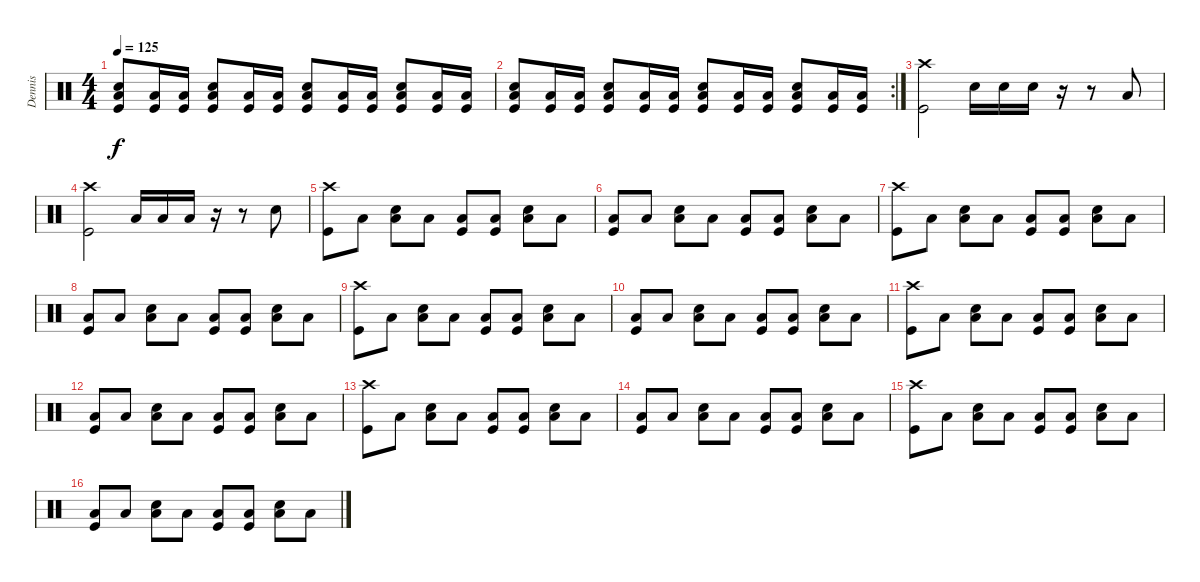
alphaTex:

\track ("Dennis" "Dennis") {instrument percussion}
\staff {score}
\articulation defaults
\ts (4 4)
\tempo 125
\clef neutral
\ks c
("Kick (hit)" "Low Floor Tom (hit)" "Electric Snare (hit)").8{dy f} ("Kick (hit)" "Low Floor Tom (hit)").16 ("Kick (hit)" "Low Floor Tom (hit)").16 ("Kick (hit)" "Low Floor Tom (hit)" "Electric Snare (hit)").8 ("Kick (hit)" "Low Floor Tom (hit)").16 ("Kick (hit)" "Low Floor Tom (hit)").16 ("Kick (hit)" "Low Floor Tom (hit)" "Electric Snare (hit)").8 ("Kick (hit)" "Low Floor Tom (hit)").16 ("Kick (hit)" "Low Floor Tom (hit)").16 ("Kick (hit)" "Low Floor Tom (hit)" "Electric Snare (hit)").8 ("Kick (hit)" "Low Floor Tom (hit)").16 ("Kick (hit)" "Low Floor Tom (hit)").16 |
\rc 2
("Kick (hit)" "Low Floor Tom (hit)" "Electric Snare (hit)").8 ("Kick (hit)" "Low Floor Tom (hit)").16 ("Kick (hit)" "Low Floor Tom (hit)").16 ("Kick (hit)" "Low Floor Tom (hit)" "Electric Snare (hit)").8 ("Kick (hit)" "Low Floor Tom (hit)").16 ("Kick (hit)" "Low Floor Tom (hit)").16 ("Kick (hit)" "Low Floor Tom (hit)" "Electric Snare (hit)").8 ("Kick (hit)" "Low Floor Tom (hit)").16 ("Kick (hit)" "Low Floor Tom (hit)").16 ("Kick (hit)" "Low Floor Tom (hit)" "Electric Snare (hit)").8 ("Kick (hit)" "Low Floor Tom (hit)").16 ("Kick (hit)" "Low Floor Tom (hit)").16 |
("Kick (hit)" "Crash high (hit)").2 "Electric Snare (hit)".16 "Electric Snare (hit)".16 "Electric Snare (hit)".16 r.16 r.8 "Low Tom (hit)".8 |
("Kick (hit)" "Crash high (hit)").2 "Low Tom (hit)".16 "Low Tom (hit)".16 "Low Tom (hit)".16 r.16 r.8 "Electric Snare (hit)".8 |
("Kick (hit)" "Crash high (hit)").8 "Low Floor Tom (hit)".8 ("Electric Snare (hit)" "Low Floor Tom (hit)").8 "Low Floor Tom (hit)".8 ("Kick (hit)" "Low Floor Tom (hit)").8 ("Kick (hit)" "Low Floor Tom (hit)").8 ("Electric Snare (hit)" "Low Floor Tom (hit)").8 "Low Floor Tom (hit)".8 |
("Kick (hit)" "Low Floor Tom (hit)").8 "Low Floor Tom (hit)".8 ("Electric Snare (hit)" "Low Floor Tom (hit)").8 "Low Floor Tom (hit)".8 ("Kick (hit)" "Low Floor Tom (hit)").8 ("Kick (hit)" "Low Floor Tom (hit)").8 ("Electric Snare (hit)" "Low Floor Tom (hit)").8 "Low Floor Tom (hit)".8 |
("Kick (hit)" "Crash high (hit)").8 "Low Floor Tom (hit)".8 ("Electric Snare (hit)" "Low Floor Tom (hit)").8 "Low Floor Tom (hit)".8 ("Kick (hit)" "Low Floor Tom (hit)").8 ("Kick (hit)" "Low Floor Tom (hit)").8 ("Electric Snare (hit)" "Low Floor Tom (hit)").8 "Low Floor Tom (hit)".8 |
("Kick (hit)" "Low Floor Tom (hit)").8 "Low Floor Tom (hit)".8 ("Electric Snare (hit)" "Low Floor Tom (hit)").8 "Low Floor Tom (hit)".8 ("Kick (hit)" "Low Floor Tom (hit)").8 ("Kick (hit)" "Low Floor Tom (hit)").8 ("Electric Snare (hit)" "Low Floor Tom (hit)").8 "Low Floor Tom (hit)".8 |
("Kick (hit)" "Crash high (hit)").8 "Low Floor Tom (hit)".8 ("Electric Snare (hit)" "Low Floor Tom (hit)").8 "Low Floor Tom (hit)".8 ("Kick (hit)" "Low Floor Tom (hit)").8 ("Kick (hit)" "Low Floor Tom (hit)").8 ("Electric Snare (hit)" "Low Floor Tom (hit)").8 "Low Floor Tom (hit)".8 |
("Kick (hit)" "Low Floor Tom (hit)").8 "Low Floor Tom (hit)".8 ("Electric Snare (hit)" "Low Floor Tom (hit)").8 "Low Floor Tom (hit)".8 ("Kick (hit)" "Low Floor Tom (hit)").8 ("Kick (hit)" "Low Floor Tom (hit)").8 ("Electric Snare (hit)" "Low Floor Tom (hit)").8 "Low Floor Tom (hit)".8 |
("Kick (hit)" "Crash high (hit)").8 "Low Floor Tom (hit)".8 ("Electric Snare (hit)" "Low Floor Tom (hit)").8 "Low Floor Tom (hit)".8 ("Kick (hit)" "Low Floor Tom (hit)").8 ("Kick (hit)" "Low Floor Tom (hit)").8 ("Electric Snare (hit)" "Low Floor Tom (hit)").8 "Low Floor Tom (hit)".8 |
("Kick (hit)" "Low Floor Tom (hit)").8 "Low Floor Tom (hit)".8 ("Electric Snare (hit)" "Low Floor Tom (hit)").8 "Low Floor Tom (hit)".8 ("Kick (hit)" "Low Floor Tom (hit)").8 ("Kick (hit)" "Low Floor Tom (hit)").8 ("Electric Snare (hit)" "Low Floor Tom (hit)").8 "Low Floor Tom (hit)".8 |
("Kick (hit)" "Crash high (hit)").8 "Low Floor Tom (hit)".8 ("Electric Snare (hit)" "Low Floor Tom (hit)").8 "Low Floor Tom (hit)".8 ("Kick (hit)" "Low Floor Tom (hit)").8 ("Kick (hit)" "Low Floor Tom (hit)").8 ("Electric Snare (hit)" "Low Floor Tom (hit)").8 "Low Floor Tom (hit)".8 |
("Kick (hit)" "Low Floor Tom (hit)").8 "Low Floor Tom (hit)".8 ("Electric Snare (hit)" "Low Floor Tom (hit)").8 "Low Floor Tom (hit)".8 ("Kick (hit)" "Low Floor Tom (hit)").8 ("Kick (hit)" "Low Floor Tom (hit)").8 ("Electric Snare (hit)" "Low Floor Tom (hit)").8 "Low Floor Tom (hit)".8 |
("Kick (hit)" "Crash high (hit)").8 "Low Floor Tom (hit)".8 ("Electric Snare (hit)" "Low Floor Tom (hit)").8 "Low Floor Tom (hit)".8 ("Kick (hit)" "Low Floor Tom (hit)").8 ("Kick (hit)" "Low Floor Tom (hit)").8 ("Electric Snare (hit)" "Low Floor Tom (hit)").8 "Low Floor Tom (hit)".8 |
("Kick (hit)" "Low Floor Tom (hit)").8 "Low Floor Tom (hit)".8 ("Electric Snare (hit)" "Low Floor Tom (hit)").8 "Low Floor Tom (hit)".8 ("Kick (hit)" "Low Floor Tom (hit)").8 ("Kick (hit)" "Low Floor Tom (hit)").8 ("Electric Snare (hit)" "Low Floor Tom (hit)").8 "Low Floor Tom (hit)".8
